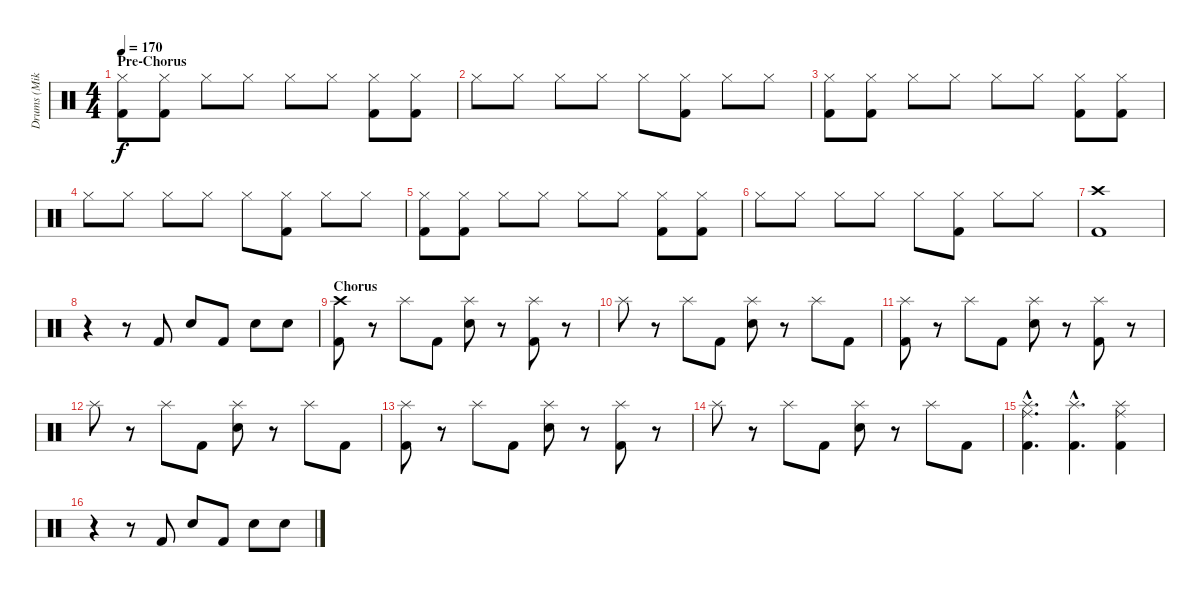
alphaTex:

\track ("Drums (Mike C)" "Drums (Mik") {instrument percussion}
\staff {score}
\articulation defaults
\ts (4 4)
\section ("" "Pre-Chorus")
\tempo 170
\clef neutral
\ks c
("Hi-Hat (closed)" "Kick (hit) 2").8{dy f} ("Hi-Hat (closed)" "Kick (hit) 2").8 "Hi-Hat (closed)".8 "Hi-Hat (closed)".8 "Hi-Hat (closed)".8 "Hi-Hat (closed)".8 ("Hi-Hat (closed)" "Kick (hit) 2").8 ("Hi-Hat (closed)" "Kick (hit) 2").8 |
"Hi-Hat (closed)".8 "Hi-Hat (closed)".8 "Hi-Hat (closed)".8 "Hi-Hat (closed)".8 "Hi-Hat (closed)".8 ("Hi-Hat (closed)" "Kick (hit) 2").8 "Hi-Hat (closed)".8 "Hi-Hat (closed)".8 |
("Hi-Hat (closed)" "Kick (hit) 2").8 ("Hi-Hat (closed)" "Kick (hit) 2").8 "Hi-Hat (closed)".8 "Hi-Hat (closed)".8 "Hi-Hat (closed)".8 "Hi-Hat (closed)".8 ("Hi-Hat (closed)" "Kick (hit) 2").8 ("Hi-Hat (closed)" "Kick (hit) 2").8 |
"Hi-Hat (closed)".8 "Hi-Hat (closed)".8 "Hi-Hat (closed)".8 "Hi-Hat (closed)".8 "Hi-Hat (closed)".8 ("Hi-Hat (closed)" "Kick (hit) 2").8 "Hi-Hat (closed)".8 "Hi-Hat (closed)".8 |
("Hi-Hat (closed)" "Kick (hit) 2").8 ("Hi-Hat (closed)" "Kick (hit) 2").8 "Hi-Hat (closed)".8 "Hi-Hat (closed)".8 "Hi-Hat (closed)".8 "Hi-Hat (closed)".8 ("Hi-Hat (closed)" "Kick (hit) 2").8 ("Hi-Hat (closed)" "Kick (hit) 2").8 |
"Hi-Hat (closed)".8 "Hi-Hat (closed)".8 "Hi-Hat (closed)".8 "Hi-Hat (closed)".8 "Hi-Hat (closed)".8 ("Hi-Hat (closed)" "Kick (hit) 2").8 "Hi-Hat (closed)".8 "Hi-Hat (closed)".8 |
("Crash high (hit)" "Kick (hit) 2").1 |
r.4 r.8 "Kick (hit) 2".8 "Snare (hit) 2".8 "Kick (hit) 2".8 "Snare (hit) 2".8 "Snare (hit) 2".8 |
\section ("" "Chorus")
("Crash high (hit)" "Kick (hit) 2").8 r.8 "Splash (hit)".8 "Kick (hit) 2".8 ("Splash (hit)" "Snare (hit) 2").8 r.8 ("Splash (hit)" "Kick (hit) 2").8 r.8 |
"Splash (hit)".8 r.8 "Splash (hit)".8 "Kick (hit) 2".8 ("Splash (hit)" "Snare (hit) 2").8 r.8 "Splash (hit)".8 "Kick (hit) 2".8 |
("Splash (hit)" "Kick (hit) 2").8 r.8 "Splash (hit)".8 "Kick (hit) 2".8 ("Splash (hit)" "Snare (hit) 2").8 r.8 ("Splash (hit)" "Kick (hit) 2").8 r.8 |
"Splash (hit)".8 r.8 "Splash (hit)".8 "Kick (hit) 2".8 ("Splash (hit)" "Snare (hit) 2").8 r.8 "Splash (hit)".8 "Kick (hit) 2".8 |
("Splash (hit)" "Kick (hit) 2").8 r.8 "Splash (hit)".8 "Kick (hit) 2".8 ("Splash (hit)" "Snare (hit) 2").8 r.8 ("Splash (hit)" "Kick (hit) 2").8 r.8 |
"Splash (hit)".8 r.8 "Splash (hit)".8 "Kick (hit) 2".8 ("Splash (hit)" "Snare (hit) 2").8 r.8 "Splash (hit)".8 "Kick (hit) 2".8 |
("Ride (middle)"{hac} "Splash (hit)"{hac} "Kick (hit) 2"{hac}).4{d} ("Splash (hit)"{hac} "Kick (hit) 2"{hac}).4{d} ("Ride (middle)" "Splash (hit)" "Kick (hit) 2").4 |
r.4 r.8 "Kick (hit) 2".8 "Snare (hit) 2".8 "Kick (hit) 2".8 "Snare (hit) 2".8 "Snare (hit) 2".8
